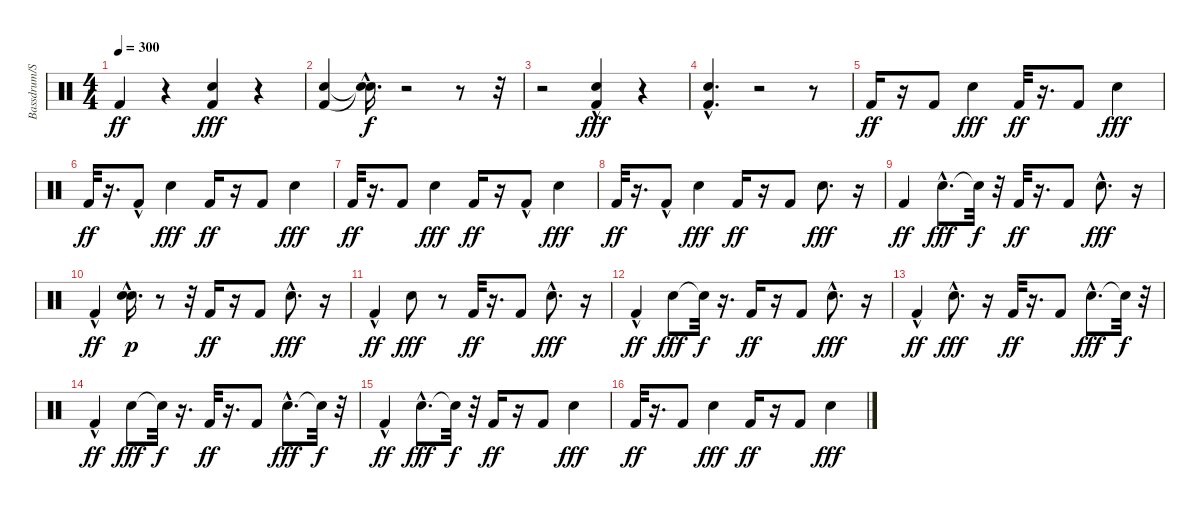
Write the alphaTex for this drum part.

\track ("Bassdrum/Snare" "Bassdrum/S") {instrument percussion}
\staff {score}
\articulation defaults
\ts (4 4)
\tempo 300
\clef neutral
\ks c "Kick (hit) 2".4{dy ff}
r.4 ("Kick (hit) 2" "Snare (hit) 2").4{dy fff} r.4 |
("Kick (hit) 2" "Snare (hit) 2").4 ("Snare (hit)"{hac t} "Snare (hit)"{t}).16{d dy f} r.2 r.8 r.32 |
r.2 ("Kick (hit) 2" "Snare (hit) 2"{hac}).4{dy fff} r.4 |
("Kick (hit) 2"{hac} "Snare (hit) 2").4{d} r.2 r.8 |
"Kick (hit) 2".16{dy ff} r.16 "Kick (hit) 2".8 "Snare (hit) 2".4{dy fff} "Kick (hit) 2".32{dy ff} r.16{d} "Kick (hit) 2".8 "Snare (hit) 2".4{dy fff} |
"Kick (hit) 2".32{dy ff} r.16{d} "Kick (hit) 2"{hac}.8 "Snare (hit) 2".4{dy fff} "Kick (hit) 2".16{dy ff} r.16 "Kick (hit) 2".8 "Snare (hit) 2".4{dy fff} |
"Kick (hit) 2".32{dy ff} r.16{d} "Kick (hit) 2".8 "Snare (hit) 2".4{dy fff} "Kick (hit) 2".16{dy ff} r.16 "Kick (hit) 2"{hac}.8 "Snare (hit) 2".4{dy fff} |
"Kick (hit) 2".32{dy ff} r.16{d} "Kick (hit) 2"{hac}.8 "Snare (hit) 2".4{dy fff} "Kick (hit) 2".16{dy ff} r.16 "Kick (hit) 2".8 "Snare (hit) 2".8{d dy fff} r.16 |
"Kick (hit) 2".4{dy ff} "Snare (hit) 2"{hac}.8{d dy fff} "Snare (hit)"{t}.32{dy f} r.32 "Kick (hit) 2".32{dy ff} r.16{d} "Kick (hit) 2".8 "Snare (hit) 2"{hac}.8{d dy fff} r.16 |
"Kick (hit) 2"{hac}.4{dy ff} ("Snare (hit) 2"{hac} "Hand Clap (hit)").16{d dy p} r.8 r.32 "Kick (hit) 2".16{dy ff} r.16 "Kick (hit) 2".8 "Snare (hit) 2"{hac}.8{d dy fff} r.16 |
"Kick (hit) 2"{hac}.4{dy ff} "Snare (hit) 2".8{dy fff} r.8 "Kick (hit) 2".32{dy ff} r.16{d} "Kick (hit) 2".8 "Snare (hit) 2"{hac}.8{d dy fff} r.16 |
"Kick (hit) 2"{hac}.4{dy ff} "Snare (hit) 2".8{dy fff} "Snare (hit)"{t}.32{dy f} r.16{d} "Kick (hit) 2".16{dy ff} r.16 "Kick (hit) 2".8 "Snare (hit) 2"{hac}.8{d dy fff} r.16 |
"Kick (hit) 2"{hac}.4{dy ff} "Snare (hit) 2"{hac}.8{d dy fff} r.16 "Kick (hit) 2".32{dy ff} r.16{d} "Kick (hit) 2".8 "Snare (hit) 2"{hac}.8{d dy fff} "Snare (hit)"{t}.32{dy f} r.32 |
"Kick (hit) 2"{hac}.4{dy ff} "Snare (hit) 2".8{dy fff} "Snare (hit)"{t}.32{dy f} r.16{d} "Kick (hit) 2".32{dy ff} r.16{d} "Kick (hit) 2".8 "Snare (hit) 2"{hac}.8{d dy fff} "Snare (hit)"{t}.32{dy f} r.32 |
"Kick (hit) 2"{hac}.4{dy ff} "Snare (hit) 2"{hac}.8{d dy fff} "Snare (hit)"{t}.32{dy f} r.32 "Kick (hit) 2".16{dy ff} r.16 "Kick (hit) 2".8 "Snare (hit) 2".4{dy fff} |
"Kick (hit) 2".32{dy ff} r.16{d} "Kick (hit) 2".8 "Snare (hit) 2".4{dy fff} "Kick (hit) 2".16{dy ff} r.16 "Kick (hit) 2".8 "Snare (hit) 2".4{dy fff}
